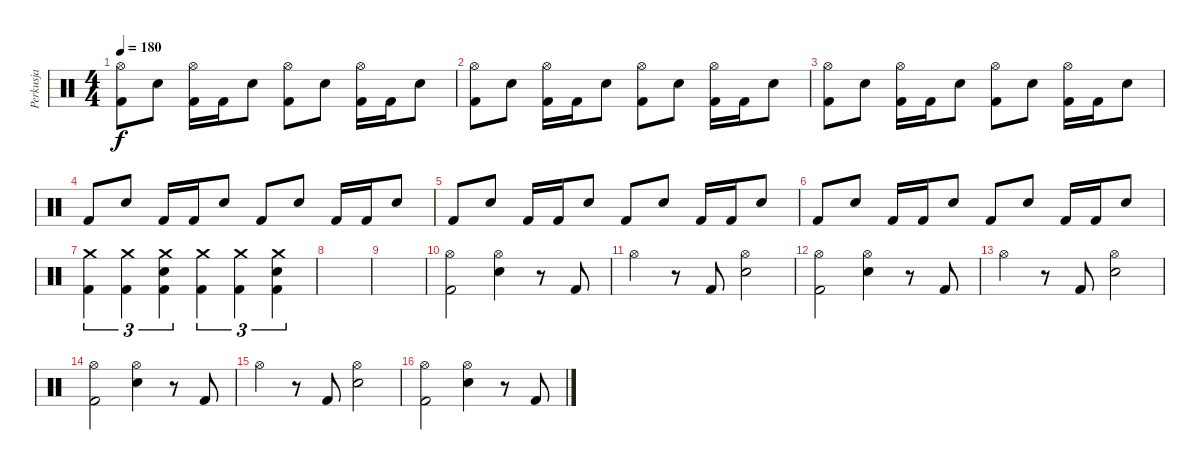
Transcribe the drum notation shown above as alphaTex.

\track ("Perkusja" "Perkusja") {instrument percussion}
\staff {score}
\articulation defaults
\ts (4 4)
\tempo 180
\clef neutral
\ks c
("Hi-Hat (open)" "Kick (hit) 2").8{dy f} "Electric Snare (hit)".8 ("Hi-Hat (open)" "Kick (hit) 2").16 "Kick (hit) 2".16 "Electric Snare (hit)".8 ("Hi-Hat (open)" "Kick (hit) 2").8 "Electric Snare (hit)".8 ("Hi-Hat (open)" "Kick (hit) 2").16 "Kick (hit) 2".16 "Electric Snare (hit)".8 |
("Hi-Hat (open)" "Kick (hit) 2").8 "Electric Snare (hit)".8 ("Hi-Hat (open)" "Kick (hit) 2").16 "Kick (hit) 2".16 "Electric Snare (hit)".8 ("Hi-Hat (open)" "Kick (hit) 2").8 "Electric Snare (hit)".8 ("Hi-Hat (open)" "Kick (hit) 2").16 "Kick (hit) 2".16 "Electric Snare (hit)".8 |
("Hi-Hat (open)" "Kick (hit) 2").8 "Electric Snare (hit)".8 ("Hi-Hat (open)" "Kick (hit) 2").16 "Kick (hit) 2".16 "Electric Snare (hit)".8 ("Hi-Hat (open)" "Kick (hit) 2").8 "Electric Snare (hit)".8 ("Hi-Hat (open)" "Kick (hit) 2").16 "Kick (hit) 2".16 "Electric Snare (hit)".8 |
"Kick (hit) 2".8 "Electric Snare (hit)".8 "Kick (hit) 2".16 "Kick (hit) 2".16 "Electric Snare (hit)".8 "Kick (hit) 2".8 "Electric Snare (hit)".8 "Kick (hit) 2".16 "Kick (hit) 2".16 "Electric Snare (hit)".8 |
"Kick (hit) 2".8 "Electric Snare (hit)".8 "Kick (hit) 2".16 "Kick (hit) 2".16 "Electric Snare (hit)".8 "Kick (hit) 2".8 "Electric Snare (hit)".8 "Kick (hit) 2".16 "Kick (hit) 2".16 "Electric Snare (hit)".8 |
"Kick (hit) 2".8 "Electric Snare (hit)".8 "Kick (hit) 2".16 "Kick (hit) 2".16 "Electric Snare (hit)".8 "Kick (hit) 2".8 "Electric Snare (hit)".8 "Kick (hit) 2".16 "Kick (hit) 2".16 "Electric Snare (hit)".8 |
("Crash medium (hit)" "Kick (hit) 2").4{tu (3 2)} ("Crash medium (hit)" "Kick (hit) 2").4{tu (3 2)} ("Crash medium (hit)" "Electric Snare (hit)" "Kick (hit) 2").4{tu (3 2)} ("Crash medium (hit)" "Kick (hit) 2").4{tu (3 2)} ("Crash medium (hit)" "Kick (hit) 2").4{tu (3 2)} ("Crash medium (hit)" "Electric Snare (hit)" "Kick (hit) 2").4{tu (3 2)} |
|
|
("Hi-Hat (open)" "Kick (hit) 2").2 ("Hi-Hat (open)" "Electric Snare (hit)").4 r.8 "Kick (hit) 2".8 |
"Hi-Hat (open)".4 r.8 "Kick (hit) 2".8 ("Hi-Hat (open)" "Electric Snare (hit)").2 |
("Hi-Hat (open)" "Kick (hit) 2").2 ("Hi-Hat (open)" "Electric Snare (hit)").4 r.8 "Kick (hit) 2".8 |
"Hi-Hat (open)".4 r.8 "Kick (hit) 2".8 ("Hi-Hat (open)" "Electric Snare (hit)").2 |
("Hi-Hat (open)" "Kick (hit) 2").2 ("Hi-Hat (open)" "Electric Snare (hit)").4 r.8 "Kick (hit) 2".8 |
"Hi-Hat (open)".4 r.8 "Kick (hit) 2".8 ("Hi-Hat (open)" "Electric Snare (hit)").2 |
("Hi-Hat (open)" "Kick (hit) 2").2 ("Hi-Hat (open)" "Electric Snare (hit)").4 r.8 "Kick (hit) 2".8
